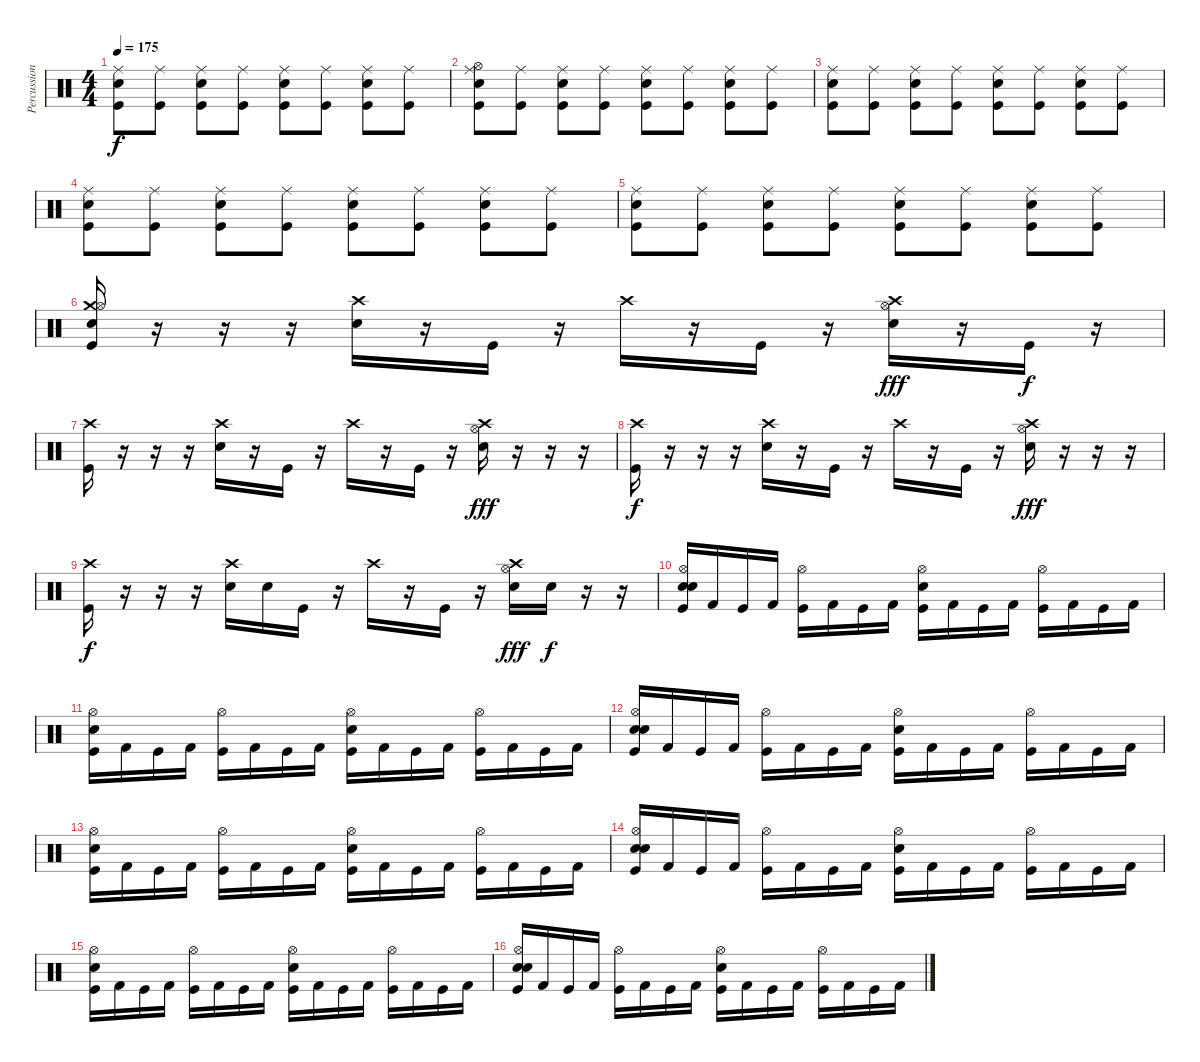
\track ("Percussions" "Percussion") {instrument percussion}
\staff {score}
\articulation defaults
\ts (4 4)
\tempo 175
\clef neutral
\ks c
("Ride (middle)" "Electric Snare (hit)" "Kick (hit)").8{dy f} ("Ride (middle)" "Kick (hit)").8 ("Ride (middle)" "Electric Snare (hit)" "Kick (hit)").8 ("Ride (middle)" "Kick (hit)").8 ("Ride (middle)" "Electric Snare (hit)" "Kick (hit)").8 ("Ride (middle)" "Kick (hit)").8 ("Ride (middle)" "Electric Snare (hit)" "Kick (hit)").8 ("Ride (middle)" "Kick (hit)").8 |
("Hi-Hat (open)" "Ride (middle)" "Electric Snare (hit)" "Kick (hit)").8 ("Ride (middle)" "Kick (hit)").8 ("Ride (middle)" "Electric Snare (hit)" "Kick (hit)").8 ("Ride (middle)" "Kick (hit)").8 ("Ride (middle)" "Electric Snare (hit)" "Kick (hit)").8 ("Ride (middle)" "Kick (hit)").8 ("Ride (middle)" "Electric Snare (hit)" "Kick (hit)").8 ("Ride (middle)" "Kick (hit)").8 |
("Ride (middle)" "Electric Snare (hit)" "Kick (hit)").8 ("Ride (middle)" "Kick (hit)").8 ("Ride (middle)" "Electric Snare (hit)" "Kick (hit)").8 ("Ride (middle)" "Kick (hit)").8 ("Ride (middle)" "Electric Snare (hit)" "Kick (hit)").8 ("Ride (middle)" "Kick (hit)").8 ("Ride (middle)" "Electric Snare (hit)" "Kick (hit)").8 ("Ride (middle)" "Kick (hit)").8 |
("Ride (middle)" "Electric Snare (hit)" "Kick (hit)").8 ("Ride (middle)" "Kick (hit)").8 ("Ride (middle)" "Electric Snare (hit)" "Kick (hit)").8 ("Ride (middle)" "Kick (hit)").8 ("Ride (middle)" "Electric Snare (hit)" "Kick (hit)").8 ("Ride (middle)" "Kick (hit)").8 ("Ride (middle)" "Electric Snare (hit)" "Kick (hit)").8 ("Ride (middle)" "Kick (hit)").8 |
("Ride (middle)" "Electric Snare (hit)" "Kick (hit)").8 ("Ride (middle)" "Kick (hit)").8 ("Ride (middle)" "Electric Snare (hit)" "Kick (hit)").8 ("Ride (middle)" "Kick (hit)").8 ("Ride (middle)" "Electric Snare (hit)" "Kick (hit)").8 ("Ride (middle)" "Kick (hit)").8 ("Ride (middle)" "Electric Snare (hit)" "Kick (hit)").8 ("Ride (middle)" "Kick (hit)").8 |
("Crash medium (hit)" "Snare (hit) 2" "Hi-Hat (open)" "Kick (hit)").16 r.16 r.16 r.16 ("Crash high (hit)" "Electric Snare (hit)").16 r.16 "Kick (hit)".16 r.16 "Crash high (hit)".16 r.16 "Kick (hit)".16 r.16 ("Crash high (hit)" "Hi-Hat (open)" "Electric Snare (hit)").16{dy fff} r.16 "Kick (hit)".16{dy f} r.16 |
("Crash high (hit)" "Kick (hit)").16 r.16 r.16 r.16 ("Crash high (hit)" "Electric Snare (hit)").16 r.16 "Kick (hit)".16 r.16 "Crash high (hit)".16 r.16 "Kick (hit)".16 r.16 ("Crash high (hit)" "Hi-Hat (open)" "Electric Snare (hit)").16{dy fff} r.16 r.16 r.16 |
("Crash high (hit)" "Kick (hit)").16{dy f} r.16 r.16 r.16 ("Crash high (hit)" "Electric Snare (hit)").16 r.16 "Kick (hit)".16 r.16 "Crash high (hit)".16 r.16 "Kick (hit)".16 r.16 ("Crash high (hit)" "Hi-Hat (open)" "Electric Snare (hit)").16{dy fff} r.16 r.16 r.16 |
("Crash high (hit)" "Kick (hit)").16{dy f} r.16 r.16 r.16 ("Crash high (hit)" "Electric Snare (hit)").16 "Electric Snare (hit)".16 "Kick (hit)".16 r.16 "Crash high (hit)".16 r.16 "Kick (hit)".16 r.16 ("Crash high (hit)" "Hi-Hat (open)" "Electric Snare (hit)").16{dy fff} "Electric Snare (hit)".16{dy f} r.16 r.16 |
("Hi-Hat (open)" "Electric Snare (hit)" "Snare (hit) 2" "Kick (hit)").16 "Kick (hit) 2".16 "Kick (hit)".16 "Kick (hit) 2".16 ("Hi-Hat (open)" "Kick (hit)").16 "Kick (hit) 2".16 "Kick (hit)".16 "Kick (hit) 2".16 ("Hi-Hat (open)" "Electric Snare (hit)" "Kick (hit)").16 "Kick (hit) 2".16 "Kick (hit)".16 "Kick (hit) 2".16 ("Hi-Hat (open)" "Kick (hit)").16 "Kick (hit) 2".16 "Kick (hit)".16 "Kick (hit) 2".16 |
("Hi-Hat (open)" "Electric Snare (hit)" "Kick (hit)").16 "Kick (hit) 2".16 "Kick (hit)".16 "Kick (hit) 2".16 ("Hi-Hat (open)" "Kick (hit)").16 "Kick (hit) 2".16 "Kick (hit)".16 "Kick (hit) 2".16 ("Hi-Hat (open)" "Electric Snare (hit)" "Kick (hit)").16 "Kick (hit) 2".16 "Kick (hit)".16 "Kick (hit) 2".16 ("Hi-Hat (open)" "Kick (hit)").16 "Kick (hit) 2".16 "Kick (hit)".16 "Kick (hit) 2".16 |
("Hi-Hat (open)" "Electric Snare (hit)" "Snare (hit) 2" "Kick (hit)").16 "Kick (hit) 2".16 "Kick (hit)".16 "Kick (hit) 2".16 ("Hi-Hat (open)" "Kick (hit)").16 "Kick (hit) 2".16 "Kick (hit)".16 "Kick (hit) 2".16 ("Hi-Hat (open)" "Electric Snare (hit)" "Kick (hit)").16 "Kick (hit) 2".16 "Kick (hit)".16 "Kick (hit) 2".16 ("Hi-Hat (open)" "Kick (hit)").16 "Kick (hit) 2".16 "Kick (hit)".16 "Kick (hit) 2".16 |
("Hi-Hat (open)" "Electric Snare (hit)" "Kick (hit)").16 "Kick (hit) 2".16 "Kick (hit)".16 "Kick (hit) 2".16 ("Hi-Hat (open)" "Kick (hit)").16 "Kick (hit) 2".16 "Kick (hit)".16 "Kick (hit) 2".16 ("Hi-Hat (open)" "Electric Snare (hit)" "Kick (hit)").16 "Kick (hit) 2".16 "Kick (hit)".16 "Kick (hit) 2".16 ("Hi-Hat (open)" "Kick (hit)").16 "Kick (hit) 2".16 "Kick (hit)".16 "Kick (hit) 2".16 |
("Hi-Hat (open)" "Electric Snare (hit)" "Snare (hit) 2" "Kick (hit)").16 "Kick (hit) 2".16 "Kick (hit)".16 "Kick (hit) 2".16 ("Hi-Hat (open)" "Kick (hit)").16 "Kick (hit) 2".16 "Kick (hit)".16 "Kick (hit) 2".16 ("Hi-Hat (open)" "Electric Snare (hit)" "Kick (hit)").16 "Kick (hit) 2".16 "Kick (hit)".16 "Kick (hit) 2".16 ("Hi-Hat (open)" "Kick (hit)").16 "Kick (hit) 2".16 "Kick (hit)".16 "Kick (hit) 2".16 |
("Hi-Hat (open)" "Electric Snare (hit)" "Kick (hit)").16 "Kick (hit) 2".16 "Kick (hit)".16 "Kick (hit) 2".16 ("Hi-Hat (open)" "Kick (hit)").16 "Kick (hit) 2".16 "Kick (hit)".16 "Kick (hit) 2".16 ("Hi-Hat (open)" "Electric Snare (hit)" "Kick (hit)").16 "Kick (hit) 2".16 "Kick (hit)".16 "Kick (hit) 2".16 ("Hi-Hat (open)" "Kick (hit)").16 "Kick (hit) 2".16 "Kick (hit)".16 "Kick (hit) 2".16 |
("Hi-Hat (open)" "Electric Snare (hit)" "Snare (hit) 2" "Kick (hit)").16 "Kick (hit) 2".16 "Kick (hit)".16 "Kick (hit) 2".16 ("Hi-Hat (open)" "Kick (hit)").16 "Kick (hit) 2".16 "Kick (hit)".16 "Kick (hit) 2".16 ("Hi-Hat (open)" "Electric Snare (hit)" "Kick (hit)").16 "Kick (hit) 2".16 "Kick (hit)".16 "Kick (hit) 2".16 ("Hi-Hat (open)" "Kick (hit)").16 "Kick (hit) 2".16 "Kick (hit)".16 "Kick (hit) 2".16
